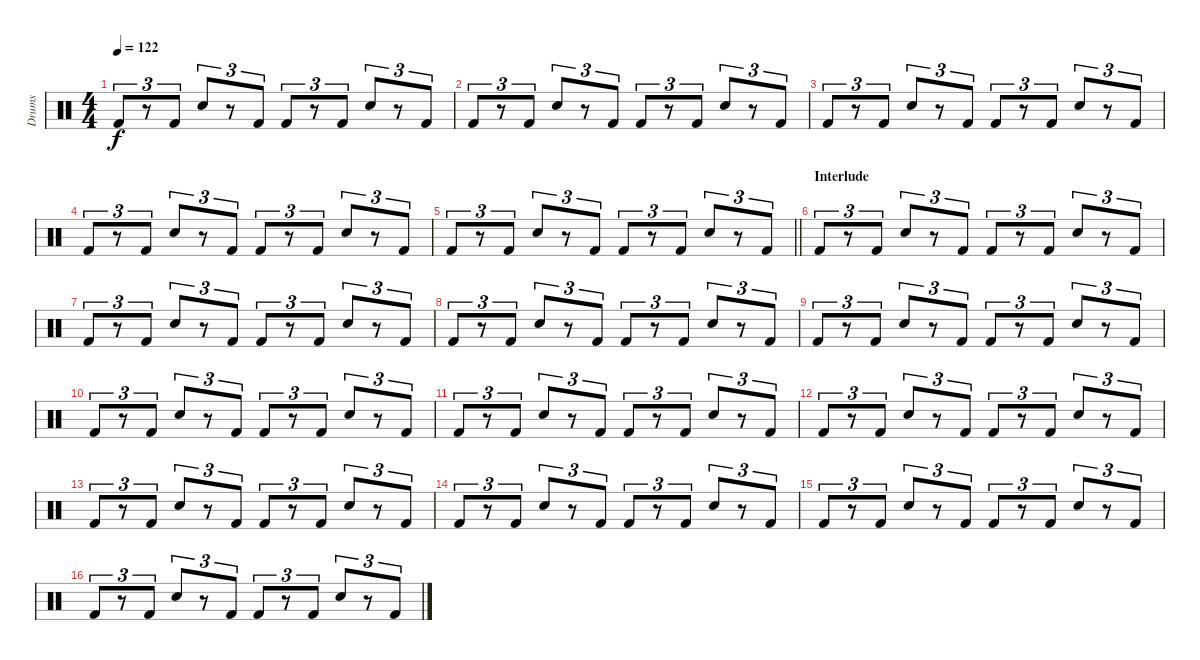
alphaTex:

\track ("Drums" "Drums") {instrument percussion}
\staff {score}
\articulation defaults
\ts (4 4)
\tempo 122
\clef neutral
\ks c "Kick (hit) 2".8{tu (3 2) dy f}
r.8{tu (3 2)} "Kick (hit) 2".8{tu (3 2)} "Snare (hit) 2".8{tu (3 2)} r.8{tu (3 2)} "Kick (hit) 2".8{tu (3 2)} "Kick (hit) 2".8{tu (3 2)} r.8{tu (3 2)} "Kick (hit) 2".8{tu (3 2)} "Snare (hit) 2".8{tu (3 2)} r.8{tu (3 2)} "Kick (hit) 2".8{tu (3 2)} |
"Kick (hit) 2".8{tu (3 2)} r.8{tu (3 2)} "Kick (hit) 2".8{tu (3 2)} "Snare (hit) 2".8{tu (3 2)} r.8{tu (3 2)} "Kick (hit) 2".8{tu (3 2)} "Kick (hit) 2".8{tu (3 2)} r.8{tu (3 2)} "Kick (hit) 2".8{tu (3 2)} "Snare (hit) 2".8{tu (3 2)} r.8{tu (3 2)} "Kick (hit) 2".8{tu (3 2)} |
"Kick (hit) 2".8{tu (3 2)} r.8{tu (3 2)} "Kick (hit) 2".8{tu (3 2)} "Snare (hit) 2".8{tu (3 2)} r.8{tu (3 2)} "Kick (hit) 2".8{tu (3 2)} "Kick (hit) 2".8{tu (3 2)} r.8{tu (3 2)} "Kick (hit) 2".8{tu (3 2)} "Snare (hit) 2".8{tu (3 2)} r.8{tu (3 2)} "Kick (hit) 2".8{tu (3 2)} |
"Kick (hit) 2".8{tu (3 2)} r.8{tu (3 2)} "Kick (hit) 2".8{tu (3 2)} "Snare (hit) 2".8{tu (3 2)} r.8{tu (3 2)} "Kick (hit) 2".8{tu (3 2)} "Kick (hit) 2".8{tu (3 2)} r.8{tu (3 2)} "Kick (hit) 2".8{tu (3 2)} "Snare (hit) 2".8{tu (3 2)} r.8{tu (3 2)} "Kick (hit) 2".8{tu (3 2)} |
\barLineRight lightlight "Kick (hit) 2".8{tu (3 2)}
r.8{tu (3 2)} "Kick (hit) 2".8{tu (3 2)} "Snare (hit) 2".8{tu (3 2)} r.8{tu (3 2)} "Kick (hit) 2".8{tu (3 2)} "Kick (hit) 2".8{tu (3 2)} r.8{tu (3 2)} "Kick (hit) 2".8{tu (3 2)} "Snare (hit) 2".8{tu (3 2)} r.8{tu (3 2)} "Kick (hit) 2".8{tu (3 2)} |
\section ("" "Interlude")
"Kick (hit) 2".8{tu (3 2)} r.8{tu (3 2)} "Kick (hit) 2".8{tu (3 2)} "Snare (hit) 2".8{tu (3 2)} r.8{tu (3 2)} "Kick (hit) 2".8{tu (3 2)} "Kick (hit) 2".8{tu (3 2)} r.8{tu (3 2)} "Kick (hit) 2".8{tu (3 2)} "Snare (hit) 2".8{tu (3 2)} r.8{tu (3 2)} "Kick (hit) 2".8{tu (3 2)} |
"Kick (hit) 2".8{tu (3 2)} r.8{tu (3 2)} "Kick (hit) 2".8{tu (3 2)} "Snare (hit) 2".8{tu (3 2)} r.8{tu (3 2)} "Kick (hit) 2".8{tu (3 2)} "Kick (hit) 2".8{tu (3 2)} r.8{tu (3 2)} "Kick (hit) 2".8{tu (3 2)} "Snare (hit) 2".8{tu (3 2)} r.8{tu (3 2)} "Kick (hit) 2".8{tu (3 2)} |
"Kick (hit) 2".8{tu (3 2)} r.8{tu (3 2)} "Kick (hit) 2".8{tu (3 2)} "Snare (hit) 2".8{tu (3 2)} r.8{tu (3 2)} "Kick (hit) 2".8{tu (3 2)} "Kick (hit) 2".8{tu (3 2)} r.8{tu (3 2)} "Kick (hit) 2".8{tu (3 2)} "Snare (hit) 2".8{tu (3 2)} r.8{tu (3 2)} "Kick (hit) 2".8{tu (3 2)} |
"Kick (hit) 2".8{tu (3 2)} r.8{tu (3 2)} "Kick (hit) 2".8{tu (3 2)} "Snare (hit) 2".8{tu (3 2)} r.8{tu (3 2)} "Kick (hit) 2".8{tu (3 2)} "Kick (hit) 2".8{tu (3 2)} r.8{tu (3 2)} "Kick (hit) 2".8{tu (3 2)} "Snare (hit) 2".8{tu (3 2)} r.8{tu (3 2)} "Kick (hit) 2".8{tu (3 2)} |
"Kick (hit) 2".8{tu (3 2)} r.8{tu (3 2)} "Kick (hit) 2".8{tu (3 2)} "Snare (hit) 2".8{tu (3 2)} r.8{tu (3 2)} "Kick (hit) 2".8{tu (3 2)} "Kick (hit) 2".8{tu (3 2)} r.8{tu (3 2)} "Kick (hit) 2".8{tu (3 2)} "Snare (hit) 2".8{tu (3 2)} r.8{tu (3 2)} "Kick (hit) 2".8{tu (3 2)} |
"Kick (hit) 2".8{tu (3 2)} r.8{tu (3 2)} "Kick (hit) 2".8{tu (3 2)} "Snare (hit) 2".8{tu (3 2)} r.8{tu (3 2)} "Kick (hit) 2".8{tu (3 2)} "Kick (hit) 2".8{tu (3 2)} r.8{tu (3 2)} "Kick (hit) 2".8{tu (3 2)} "Snare (hit) 2".8{tu (3 2)} r.8{tu (3 2)} "Kick (hit) 2".8{tu (3 2)} |
"Kick (hit) 2".8{tu (3 2)} r.8{tu (3 2)} "Kick (hit) 2".8{tu (3 2)} "Snare (hit) 2".8{tu (3 2)} r.8{tu (3 2)} "Kick (hit) 2".8{tu (3 2)} "Kick (hit) 2".8{tu (3 2)} r.8{tu (3 2)} "Kick (hit) 2".8{tu (3 2)} "Snare (hit) 2".8{tu (3 2)} r.8{tu (3 2)} "Kick (hit) 2".8{tu (3 2)} |
"Kick (hit) 2".8{tu (3 2)} r.8{tu (3 2)} "Kick (hit) 2".8{tu (3 2)} "Snare (hit) 2".8{tu (3 2)} r.8{tu (3 2)} "Kick (hit) 2".8{tu (3 2)} "Kick (hit) 2".8{tu (3 2)} r.8{tu (3 2)} "Kick (hit) 2".8{tu (3 2)} "Snare (hit) 2".8{tu (3 2)} r.8{tu (3 2)} "Kick (hit) 2".8{tu (3 2)} |
"Kick (hit) 2".8{tu (3 2)} r.8{tu (3 2)} "Kick (hit) 2".8{tu (3 2)} "Snare (hit) 2".8{tu (3 2)} r.8{tu (3 2)} "Kick (hit) 2".8{tu (3 2)} "Kick (hit) 2".8{tu (3 2)} r.8{tu (3 2)} "Kick (hit) 2".8{tu (3 2)} "Snare (hit) 2".8{tu (3 2)} r.8{tu (3 2)} "Kick (hit) 2".8{tu (3 2)} |
"Kick (hit) 2".8{tu (3 2)} r.8{tu (3 2)} "Kick (hit) 2".8{tu (3 2)} "Snare (hit) 2".8{tu (3 2)} r.8{tu (3 2)} "Kick (hit) 2".8{tu (3 2)} "Kick (hit) 2".8{tu (3 2)} r.8{tu (3 2)} "Kick (hit) 2".8{tu (3 2)} "Snare (hit) 2".8{tu (3 2)} r.8{tu (3 2)} "Kick (hit) 2".8{tu (3 2)} |
"Kick (hit) 2".8{tu (3 2)} r.8{tu (3 2)} "Kick (hit) 2".8{tu (3 2)} "Snare (hit) 2".8{tu (3 2)} r.8{tu (3 2)} "Kick (hit) 2".8{tu (3 2)} "Kick (hit) 2".8{tu (3 2)} r.8{tu (3 2)} "Kick (hit) 2".8{tu (3 2)} "Snare (hit) 2".8{tu (3 2)} r.8{tu (3 2)} "Kick (hit) 2".8{tu (3 2)}
